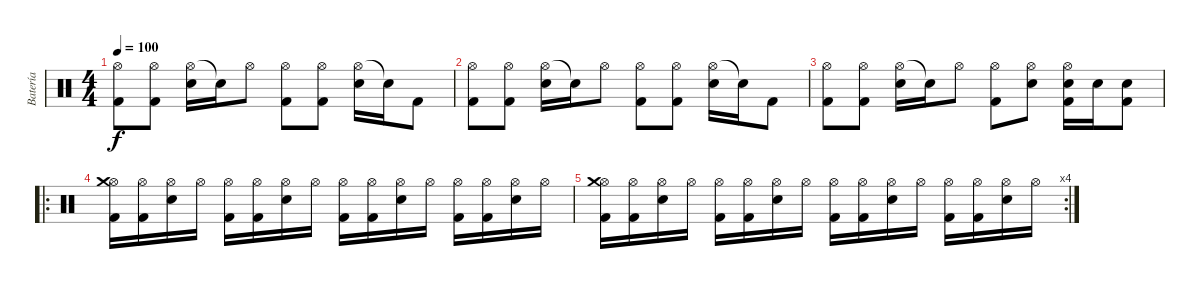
\track ("Batería" "Batería") {instrument percussion}
\staff {score}
\articulation defaults
\ts (4 4)
\tempo 100
\clef neutral
\ks c
("Hi-Hat (open)" "Kick (hit) 2").8{dy f} ("Hi-Hat (open)" "Kick (hit) 2").8 ("Hi-Hat (open)" "Snare (hit) 2").16 "Snare (hit)"{t}.16 "Hi-Hat (open)".8 ("Hi-Hat (open)" "Kick (hit) 2").8 ("Hi-Hat (open)" "Kick (hit) 2").8 ("Hi-Hat (open)" "Snare (hit) 2").16 "Snare (hit)"{t}.16 "Kick (hit) 2".8 |
("Hi-Hat (open)" "Kick (hit) 2").8 ("Hi-Hat (open)" "Kick (hit) 2").8 ("Hi-Hat (open)" "Snare (hit) 2").16 "Snare (hit)"{t}.16 "Hi-Hat (open)".8 ("Hi-Hat (open)" "Kick (hit) 2").8 ("Hi-Hat (open)" "Kick (hit) 2").8 ("Hi-Hat (open)" "Snare (hit) 2").16 "Snare (hit)"{t}.16 "Kick (hit) 2".8 |
("Hi-Hat (open)" "Kick (hit) 2").8 ("Hi-Hat (open)" "Kick (hit) 2").8 ("Hi-Hat (open)" "Snare (hit) 2").16 "Snare (hit)"{t}.16 "Hi-Hat (open)".8 ("Hi-Hat (open)" "Kick (hit) 2").8 ("Hi-Hat (open)" "Snare (hit) 2").8 ("Hi-Hat (open)" "Snare (hit) 2" "Kick (hit) 2").16 "Snare (hit) 2".16 ("Snare (hit) 2" "Kick (hit) 2").8 |
\ro
("Kick (hit) 2" "Hi-Hat (open)" "Crash medium (hit)").16 ("Kick (hit) 2" "Hi-Hat (open)").16 ("Snare (hit) 2" "Hi-Hat (open)").16 "Hi-Hat (open)".16 ("Kick (hit) 2" "Hi-Hat (open)").16 ("Kick (hit) 2" "Hi-Hat (open)").16 ("Snare (hit) 2" "Hi-Hat (open)").16 "Hi-Hat (open)".16 ("Kick (hit) 2" "Hi-Hat (open)").16 ("Kick (hit) 2" "Hi-Hat (open)").16 ("Snare (hit) 2" "Hi-Hat (open)").16 "Hi-Hat (open)".16 ("Kick (hit) 2" "Hi-Hat (open)").16 ("Kick (hit) 2" "Hi-Hat (open)").16 ("Snare (hit) 2" "Hi-Hat (open)").16 "Hi-Hat (open)".16 |
\rc 4
("Kick (hit) 2" "Hi-Hat (open)" "Crash medium (hit)").16 ("Kick (hit) 2" "Hi-Hat (open)").16 ("Snare (hit) 2" "Hi-Hat (open)").16 "Hi-Hat (open)".16 ("Kick (hit) 2" "Hi-Hat (open)").16 ("Kick (hit) 2" "Hi-Hat (open)").16 ("Snare (hit) 2" "Hi-Hat (open)").16 "Hi-Hat (open)".16 ("Kick (hit) 2" "Hi-Hat (open)").16 ("Kick (hit) 2" "Hi-Hat (open)").16 ("Snare (hit) 2" "Hi-Hat (open)").16 "Hi-Hat (open)".16 ("Kick (hit) 2" "Hi-Hat (open)").16 ("Kick (hit) 2" "Hi-Hat (open)").16 ("Snare (hit) 2" "Hi-Hat (open)").16 "Hi-Hat (open)".16
